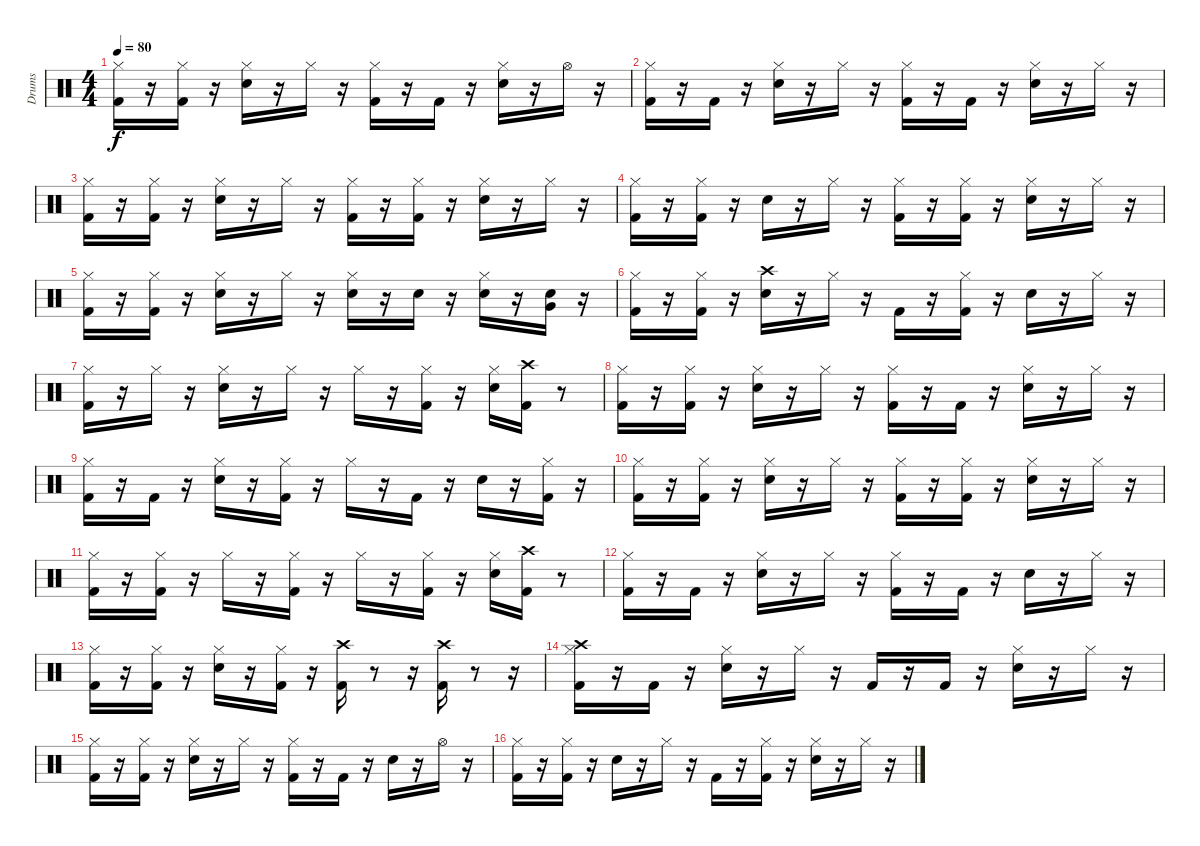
\track ("Drums" "Drums") {instrument percussion}
\staff {score}
\articulation defaults
\ts (4 4)
\tempo 80
\clef neutral
\ks c
("Kick (hit) 2" "Hi-Hat (closed)").16{dy f} r.16 ("Kick (hit) 2" "Hi-Hat (closed)").16 r.16 ("Snare (hit) 2" "Hi-Hat (closed)").16 r.16 "Hi-Hat (closed)".16 r.16 ("Kick (hit) 2" "Hi-Hat (closed)").16 r.16 "Kick (hit) 2".16 r.16 ("Snare (hit) 2" "Hi-Hat (closed)").16 r.16 "Hi-Hat (open)".16 r.16 |
("Kick (hit) 2" "Hi-Hat (closed)").16 r.16 "Kick (hit) 2".16 r.16 ("Snare (hit) 2" "Hi-Hat (closed)").16 r.16 "Hi-Hat (closed)".16 r.16 ("Kick (hit) 2" "Hi-Hat (closed)").16 r.16 "Kick (hit) 2".16 r.16 ("Snare (hit) 2" "Hi-Hat (closed)").16 r.16 "Hi-Hat (closed)".16 r.16 |
("Kick (hit) 2" "Hi-Hat (closed)").16 r.16 ("Kick (hit) 2" "Hi-Hat (closed)").16 r.16 ("Snare (hit) 2" "Hi-Hat (closed)").16 r.16 "Hi-Hat (closed)".16 r.16 ("Kick (hit) 2" "Hi-Hat (closed)").16 r.16 ("Kick (hit) 2" "Hi-Hat (closed)").16 r.16 ("Snare (hit) 2" "Hi-Hat (closed)").16 r.16 "Hi-Hat (closed)".16 r.16 |
("Kick (hit) 2" "Hi-Hat (closed)").16 r.16 ("Kick (hit) 2" "Hi-Hat (closed)").16 r.16 "Snare (hit) 2".16 r.16 "Hi-Hat (closed)".16 r.16 ("Kick (hit) 2" "Hi-Hat (closed)").16 r.16 ("Kick (hit) 2" "Hi-Hat (closed)").16 r.16 ("Snare (hit) 2" "Hi-Hat (closed)").16 r.16 "Hi-Hat (closed)".16 r.16 |
("Kick (hit) 2" "Hi-Hat (closed)").16 r.16 ("Kick (hit) 2" "Hi-Hat (closed)").16 r.16 ("Snare (hit) 2" "Hi-Hat (closed)").16 r.16 "Hi-Hat (closed)".16 r.16 ("Snare (hit) 2" "Hi-Hat (closed)").16 r.16 "Snare (hit) 2".16 r.16 ("Snare (hit) 2" "Hi-Hat (closed)").16 r.16 ("Snare (hit) 2" "Very Low Tom (hit)").16 r.16 |
("Kick (hit) 2" "Hi-Hat (closed)").16 r.16 ("Kick (hit) 2" "Hi-Hat (closed)").16 r.16 ("Snare (hit) 2" "Crash high (hit)").16 r.16 "Hi-Hat (closed)".16 r.16 "Kick (hit) 2".16 r.16 ("Kick (hit) 2" "Hi-Hat (closed)").16 r.16 "Snare (hit) 2".16 r.16 "Hi-Hat (closed)".16 r.16 |
("Kick (hit) 2" "Hi-Hat (closed)").16 r.16 "Hi-Hat (closed)".16 r.16 ("Snare (hit) 2" "Hi-Hat (closed)").16 r.16 "Hi-Hat (closed)".16 r.16 "Hi-Hat (closed)".16 r.16 ("Kick (hit) 2" "Hi-Hat (closed)").16 r.16 ("Snare (hit) 2" "Hi-Hat (closed)").16 ("Kick (hit) 2" "Crash high (hit)").16 r.8 |
("Kick (hit) 2" "Hi-Hat (closed)").16 r.16 ("Kick (hit) 2" "Hi-Hat (closed)").16 r.16 ("Snare (hit) 2" "Hi-Hat (closed)").16 r.16 "Hi-Hat (closed)".16 r.16 ("Kick (hit) 2" "Hi-Hat (closed)").16 r.16 "Kick (hit) 2".16 r.16 ("Snare (hit) 2" "Hi-Hat (closed)").16 r.16 "Hi-Hat (closed)".16 r.16 |
("Kick (hit) 2" "Hi-Hat (closed)").16 r.16 "Kick (hit) 2".16 r.16 ("Snare (hit) 2" "Hi-Hat (closed)").16 r.16 ("Kick (hit) 2" "Hi-Hat (closed)").16 r.16 "Hi-Hat (closed)".16 r.16 "Kick (hit) 2".16 r.16 "Snare (hit) 2".16 r.16 ("Kick (hit) 2" "Hi-Hat (closed)").16 r.16 |
("Kick (hit) 2" "Hi-Hat (closed)").16 r.16 ("Kick (hit) 2" "Hi-Hat (closed)").16 r.16 ("Snare (hit) 2" "Hi-Hat (closed)").16 r.16 "Hi-Hat (closed)".16 r.16 ("Kick (hit) 2" "Hi-Hat (closed)").16 r.16 ("Kick (hit) 2" "Hi-Hat (closed)").16 r.16 ("Snare (hit) 2" "Hi-Hat (closed)").16 r.16 "Hi-Hat (closed)".16 r.16 |
("Kick (hit) 2" "Hi-Hat (closed)").16 r.16 ("Kick (hit) 2" "Hi-Hat (closed)").16 r.16 "Hi-Hat (closed)".16 r.16 ("Kick (hit) 2" "Hi-Hat (closed)").16 r.16 "Hi-Hat (closed)".16 r.16 ("Kick (hit) 2" "Hi-Hat (closed)").16 r.16 ("Snare (hit) 2" "Hi-Hat (closed)").16 ("Kick (hit) 2" "Crash high (hit)").16 r.8 |
("Kick (hit) 2" "Hi-Hat (closed)").16 r.16 "Kick (hit) 2".16 r.16 ("Snare (hit) 2" "Hi-Hat (closed)").16 r.16 "Hi-Hat (closed)".16 r.16 ("Kick (hit) 2" "Hi-Hat (closed)").16 r.16 "Kick (hit) 2".16 r.16 "Snare (hit) 2".16 r.16 "Hi-Hat (closed)".16 r.16 |
("Kick (hit) 2" "Hi-Hat (closed)").16 r.16 ("Kick (hit) 2" "Hi-Hat (closed)").16 r.16 ("Snare (hit) 2" "Hi-Hat (closed)").16 r.16 ("Kick (hit) 2" "Hi-Hat (closed)").16 r.16 ("Kick (hit) 2" "Crash high (hit)").16 r.8 r.16 ("Kick (hit) 2" "Crash high (hit)").16 r.8 r.16 |
("Kick (hit) 2" "Hi-Hat (closed)" "Crash high (hit)").16 r.16 "Kick (hit) 2".16 r.16 ("Snare (hit) 2" "Hi-Hat (closed)").16 r.16 "Hi-Hat (closed)".16 r.16 "Kick (hit) 2".16 r.16 "Kick (hit) 2".16 r.16 ("Snare (hit) 2" "Hi-Hat (closed)").16 r.16 "Hi-Hat (closed)".16 r.16 |
("Kick (hit) 2" "Hi-Hat (closed)").16 r.16 ("Kick (hit) 2" "Hi-Hat (closed)").16 r.16 ("Snare (hit) 2" "Hi-Hat (closed)").16 r.16 "Hi-Hat (closed)".16 r.16 ("Kick (hit) 2" "Hi-Hat (closed)").16 r.16 "Kick (hit) 2".16 r.16 "Snare (hit) 2".16 r.16 "Hi-Hat (open)".16 r.16 |
("Kick (hit) 2" "Hi-Hat (closed)").16 r.16 ("Kick (hit) 2" "Hi-Hat (closed)").16 r.16 "Snare (hit) 2".16 r.16 "Hi-Hat (closed)".16 r.16 "Kick (hit) 2".16 r.16 ("Kick (hit) 2" "Hi-Hat (closed)").16 r.16 ("Snare (hit) 2" "Hi-Hat (closed)").16 r.16 "Hi-Hat (closed)".16 r.16
